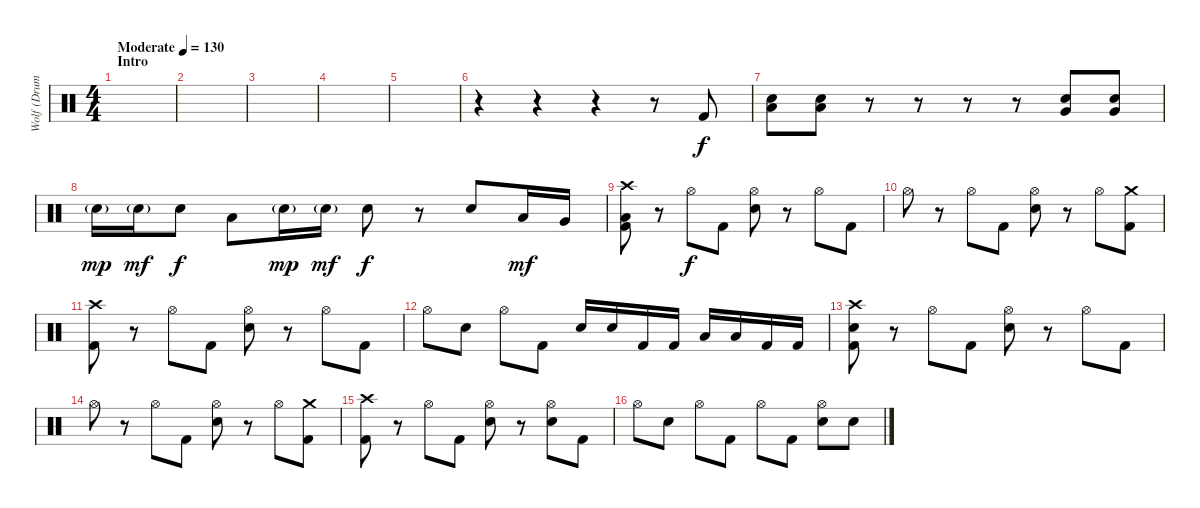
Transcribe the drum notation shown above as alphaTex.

\track ("Wolf (Drums)" "Wolf (Drum") {instrument percussion}
\staff {score}
\articulation defaults
\ts (4 4)
\section ("" "Intro")
\tempo (130 "Moderate")
\clef neutral
\ks c
|
|
|
|
|
r.4 r.4 r.4 r.8 "Kick (hit) 2".8 |
("Snare (hit) 2" "Low Floor Tom (hit)").8 ("Snare (hit) 2" "Low Floor Tom (hit)").8 r.8 r.8 r.8 r.8 ("Snare (hit) 2" "Very Low Tom (hit)").8 ("Snare (hit) 2" "Very Low Tom (hit)").8 |
"Snare (hit) 2"{g}.16{dy mp} "Snare (hit) 2"{g}.16{dy mf} "Snare (hit) 2".8{dy f} "Low Tom (hit)".8 "Snare (hit) 2"{g}.16{dy mp} "Snare (hit) 2"{g}.16{dy mf} "Snare (hit) 2".8{dy f} r.8 "Snare (hit) 2".8 "Low Tom (hit)".16{dy mf} "Very Low Tom (hit)".16 |
("Crash high (hit)" "Low Floor Tom (hit)" "Kick (hit) 2").8 r.8 "Hi-Hat (open)".8{dy f} "Kick (hit) 2".8 ("Hi-Hat (open)" "Snare (hit) 2").8 r.8 "Hi-Hat (open)".8 "Kick (hit) 2".8 |
"Hi-Hat (open)".8 r.8 "Hi-Hat (open)".8 "Kick (hit) 2".8 ("Hi-Hat (open)" "Snare (hit) 2").8 r.8 "Hi-Hat (open)".8 ("Crash medium (hit)" "Kick (hit) 2").8 |
("Crash high (hit)" "Kick (hit) 2").8 r.8 "Hi-Hat (open)".8 "Kick (hit) 2".8 ("Hi-Hat (open)" "Snare (hit) 2").8 r.8 "Hi-Hat (open)".8 "Kick (hit) 2".8 |
"Hi-Hat (open)".8 "Snare (hit) 2".8 "Hi-Hat (open)".8 "Kick (hit) 2".8 "Snare (hit) 2".16 "Snare (hit) 2".16 "Kick (hit) 2".16 "Kick (hit) 2".16 "Low Tom (hit)".16 "Low Tom (hit)".16 "Kick (hit) 2".16 "Kick (hit) 2".16 |
("Crash high (hit)" "Snare (hit) 2" "Kick (hit) 2").8 r.8 "Hi-Hat (open)".8 "Kick (hit) 2".8 ("Hi-Hat (open)" "Snare (hit) 2").8 r.8 "Hi-Hat (open)".8 "Kick (hit) 2".8 |
"Hi-Hat (open)".8 r.8 "Hi-Hat (open)".8 "Kick (hit) 2".8 ("Hi-Hat (open)" "Snare (hit) 2").8 r.8 "Hi-Hat (open)".8 ("Crash medium (hit)" "Kick (hit) 2").8 |
("Crash high (hit)" "Kick (hit) 2").8 r.8 "Hi-Hat (open)".8 "Kick (hit) 2".8 ("Hi-Hat (open)" "Snare (hit) 2").8 r.8 ("Hi-Hat (open)" "Snare (hit) 2").8 "Kick (hit) 2".8 |
"Hi-Hat (open)".8 "Snare (hit) 2".8 "Hi-Hat (open)".8 "Kick (hit) 2".8 "Hi-Hat (open)".8 "Kick (hit) 2".8 ("Hi-Hat (open)" "Snare (hit) 2").8 "Snare (hit) 2".8
